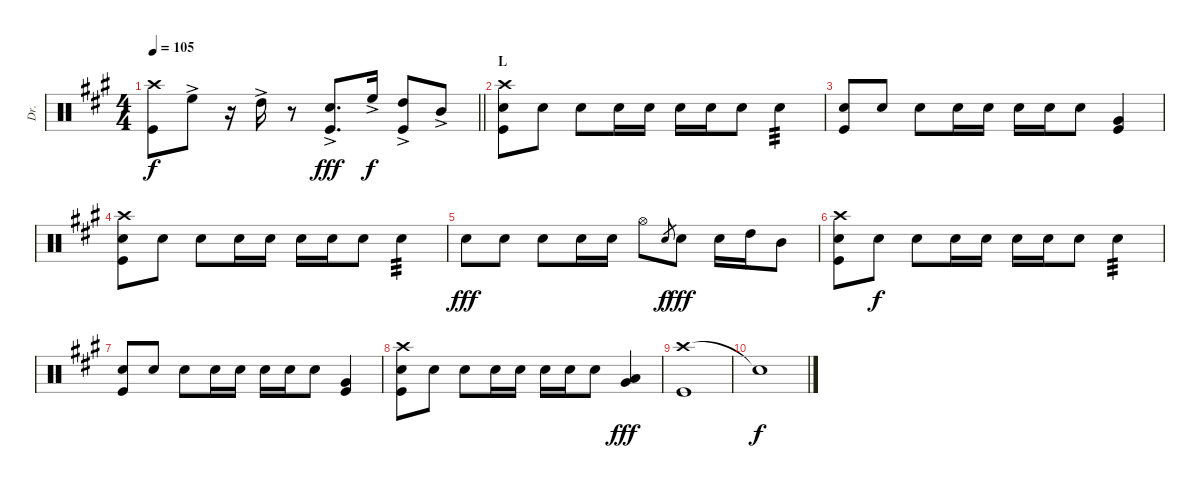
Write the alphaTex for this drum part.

\track ("Dr." "Dr.") {instrument percussion}
\staff {score}
\articulation defaults
\ts (4 4)
\tempo 105
\clef neutral
\barLineRight lightlight
\ks a
("Crash high (hit)" "Kick (hit)").8{dy f} "High Floor Tom (hit)"{ac}.8 r.16 "High Tom (hit)"{ac}.16 r.8 ("Snare (hit) 2"{ac} "Kick (hit)"{ac}).8{d dy fff} "High Floor Tom (hit)"{ac}.16{dy f} ("High Tom (hit)"{ac} "Kick (hit)").8 "Mid Tom (hit)"{ac}.8 |
\section ("" "L")
("Snare (hit) 2" "Kick (hit)" "Crash high (hit)").8 "Snare (hit) 2".8 "Snare (hit) 2".8 "Snare (hit) 2".16 "Snare (hit) 2".16 "Snare (hit) 2".16 "Snare (hit) 2".16 "Snare (hit) 2".8 "Snare (hit) 2".4{tp 3} |
("Snare (hit) 2" "Kick (hit)").8 "Snare (hit) 2".8 "Snare (hit) 2".8 "Snare (hit) 2".16 "Snare (hit) 2".16 "Snare (hit) 2".16 "Snare (hit) 2".16 "Snare (hit) 2".8 ("Very Low Tom (hit)" "Kick (hit)").4 |
("Snare (hit) 2" "Kick (hit)" "Crash high (hit)").8 "Snare (hit) 2".8 "Snare (hit) 2".8 "Snare (hit) 2".16 "Snare (hit) 2".16 "Snare (hit) 2".16 "Snare (hit) 2".16 "Snare (hit) 2".8 "Snare (hit) 2".4{tp 3} |
"Snare (hit) 2".8{dy fff} "Snare (hit) 2".8 "Snare (hit) 2".8 "Snare (hit) 2".16 "Snare (hit) 2".16 "Hi-Hat (open)".8 "Snare (hit) 2".8{gr dy f} "Snare (hit) 2".8{dy fff} "Snare (hit) 2".16 "High Tom (hit)".16 "Mid Tom (hit)".8 |
("Snare (hit) 2" "Kick (hit)" "Crash high (hit)").8 "Snare (hit) 2".8{dy f} "Snare (hit) 2".8 "Snare (hit) 2".16 "Snare (hit) 2".16 "Snare (hit) 2".16 "Snare (hit) 2".16 "Snare (hit) 2".8 "Snare (hit) 2".4{tp 3} |
("Snare (hit) 2" "Kick (hit)").8 "Snare (hit) 2".8 "Snare (hit) 2".8 "Snare (hit) 2".16 "Snare (hit) 2".16 "Snare (hit) 2".16 "Snare (hit) 2".16 "Snare (hit) 2".8 ("Very Low Tom (hit)" "Kick (hit)").4 |
("Snare (hit) 2" "Kick (hit)" "Crash high (hit)").8 "Snare (hit) 2".8 "Snare (hit) 2".8 "Snare (hit) 2".16 "Snare (hit) 2".16 "Snare (hit) 2".16 "Snare (hit) 2".16 "Snare (hit) 2".8 ("Low Tom (hit)" "Very Low Tom (hit)").4{dy fff} |
("Crash high (hit)" "Kick (hit)").1 |
"Snare (hit)"{t}.1{dy f}
